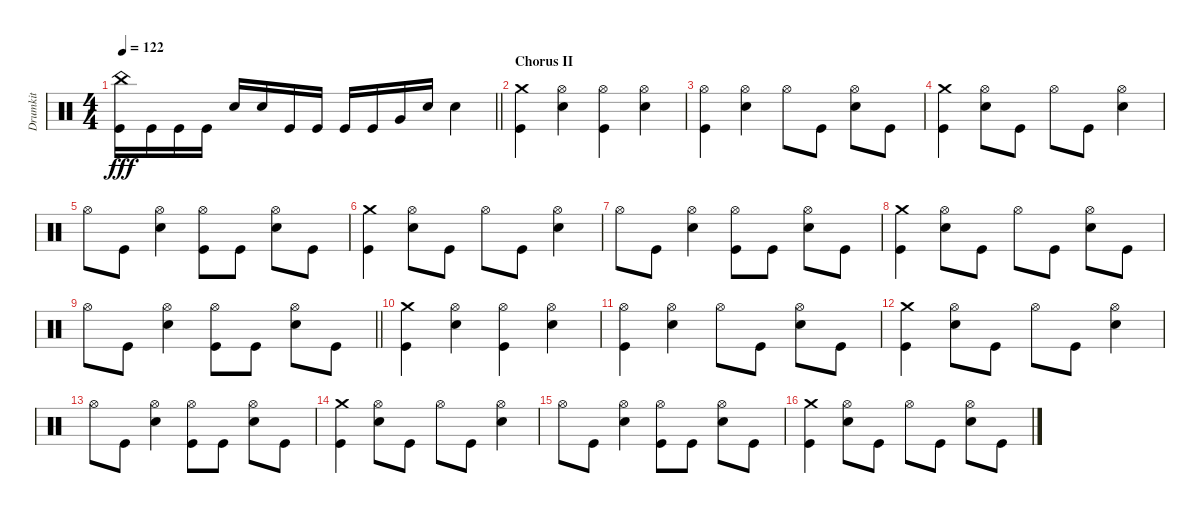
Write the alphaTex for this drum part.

\track ("Drumkit" "Drumkit") {mute instrument percussion}
\staff {score}
\articulation defaults
\ts (4 4)
\tempo 122
\clef neutral
\barLineRight lightlight
\ks c
("Kick (hit)" "China (hit)").16{dy fff} "Kick (hit)".16 "Kick (hit)".16 "Kick (hit)".16 "Snare (hit) 2".16 "Snare (hit) 2".16 "Kick (hit)".16 "Kick (hit)".16 "Kick (hit)".16 "Kick (hit)".16 "Very Low Tom (hit)".16 "Snare (hit) 2".16 "Snare (hit) 2".4 |
\section ("" "Chorus II")
("Kick (hit)" "Crash medium (hit)").4 ("Snare (hit) 2" "Hi-Hat (open)").4 ("Kick (hit)" "Hi-Hat (open)").4 ("Snare (hit) 2" "Hi-Hat (open)").4 |
("Kick (hit)" "Hi-Hat (open)").4 ("Snare (hit) 2" "Hi-Hat (open)").4 "Hi-Hat (open)".8 "Kick (hit)".8 ("Hi-Hat (open)" "Snare (hit) 2").8 "Kick (hit)".8 |
("Kick (hit)" "Crash medium (hit)").4 ("Snare (hit) 2" "Hi-Hat (open)").8 "Kick (hit)".8 "Hi-Hat (open)".8 "Kick (hit)".8 ("Snare (hit) 2" "Hi-Hat (open)").4 |
"Hi-Hat (open)".8 "Kick (hit)".8 ("Snare (hit) 2" "Hi-Hat (open)").4 ("Hi-Hat (open)" "Kick (hit)").8 "Kick (hit)".8 ("Hi-Hat (open)" "Snare (hit) 2").8 "Kick (hit)".8 |
("Kick (hit)" "Crash medium (hit)").4 ("Snare (hit) 2" "Hi-Hat (open)").8 "Kick (hit)".8 "Hi-Hat (open)".8 "Kick (hit)".8 ("Snare (hit) 2" "Hi-Hat (open)").4 |
"Hi-Hat (open)".8 "Kick (hit)".8 ("Snare (hit) 2" "Hi-Hat (open)").4 ("Hi-Hat (open)" "Kick (hit)").8 "Kick (hit)".8 ("Hi-Hat (open)" "Snare (hit) 2").8 "Kick (hit)".8 |
("Kick (hit)" "Crash medium (hit)").4 ("Snare (hit) 2" "Hi-Hat (open)").8 "Kick (hit)".8 "Hi-Hat (open)".8 "Kick (hit)".8 ("Snare (hit) 2" "Hi-Hat (open)").8 "Kick (hit)".8 |
\barLineRight lightlight "Hi-Hat (open)".8 "Kick (hit)".8
("Snare (hit) 2" "Hi-Hat (open)").4 ("Hi-Hat (open)" "Kick (hit)").8 "Kick (hit)".8 ("Hi-Hat (open)" "Snare (hit) 2").8 "Kick (hit)".8 |
("Kick (hit)" "Crash medium (hit)").4 ("Snare (hit) 2" "Hi-Hat (open)").4 ("Kick (hit)" "Hi-Hat (open)").4 ("Snare (hit) 2" "Hi-Hat (open)").4 |
("Kick (hit)" "Hi-Hat (open)").4 ("Snare (hit) 2" "Hi-Hat (open)").4 "Hi-Hat (open)".8 "Kick (hit)".8 ("Hi-Hat (open)" "Snare (hit) 2").8 "Kick (hit)".8 |
("Kick (hit)" "Crash medium (hit)").4 ("Snare (hit) 2" "Hi-Hat (open)").8 "Kick (hit)".8 "Hi-Hat (open)".8 "Kick (hit)".8 ("Snare (hit) 2" "Hi-Hat (open)").4 |
"Hi-Hat (open)".8 "Kick (hit)".8 ("Snare (hit) 2" "Hi-Hat (open)").4 ("Hi-Hat (open)" "Kick (hit)").8 "Kick (hit)".8 ("Hi-Hat (open)" "Snare (hit) 2").8 "Kick (hit)".8 |
("Kick (hit)" "Crash medium (hit)").4 ("Snare (hit) 2" "Hi-Hat (open)").8 "Kick (hit)".8 "Hi-Hat (open)".8 "Kick (hit)".8 ("Snare (hit) 2" "Hi-Hat (open)").4 |
"Hi-Hat (open)".8 "Kick (hit)".8 ("Snare (hit) 2" "Hi-Hat (open)").4 ("Hi-Hat (open)" "Kick (hit)").8 "Kick (hit)".8 ("Hi-Hat (open)" "Snare (hit) 2").8 "Kick (hit)".8 |
("Kick (hit)" "Crash medium (hit)").4 ("Snare (hit) 2" "Hi-Hat (open)").8 "Kick (hit)".8 "Hi-Hat (open)".8 "Kick (hit)".8 ("Snare (hit) 2" "Hi-Hat (open)").8 "Kick (hit)".8
